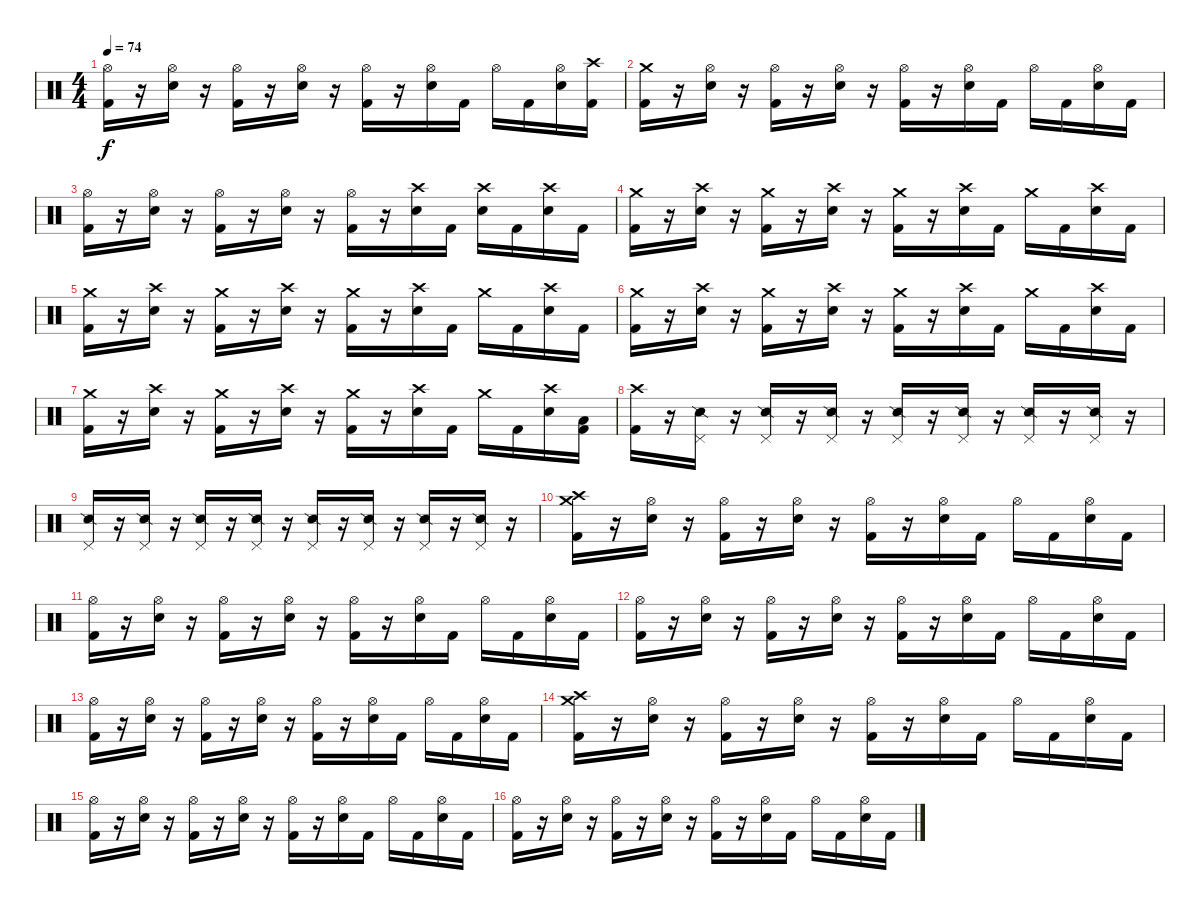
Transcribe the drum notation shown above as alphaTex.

\track "" {instrument percussion}
\staff {score}
\articulation defaults
\ts (4 4)
\tempo 74
\clef neutral
\ks c
("Hi-Hat (open)" "Kick (hit) 2").16{dy f} r.16 ("Hi-Hat (open)" "Electric Snare (hit)").16 r.16 ("Hi-Hat (open)" "Kick (hit) 2").16 r.16 ("Hi-Hat (open)" "Electric Snare (hit)").16 r.16 ("Hi-Hat (open)" "Kick (hit) 2").16 r.16 ("Hi-Hat (open)" "Electric Snare (hit)").16 "Kick (hit) 2".16 "Hi-Hat (open)".16 "Kick (hit) 2".16 ("Hi-Hat (open)" "Electric Snare (hit)").16 ("Crash high (hit)" "Kick (hit) 2").16 |
("Crash medium (hit)" "Kick (hit) 2").16 r.16 ("Hi-Hat (open)" "Electric Snare (hit)").16 r.16 ("Hi-Hat (open)" "Kick (hit) 2").16 r.16 ("Hi-Hat (open)" "Electric Snare (hit)").16 r.16 ("Hi-Hat (open)" "Kick (hit) 2").16 r.16 ("Hi-Hat (open)" "Electric Snare (hit)").16 "Kick (hit) 2".16 "Hi-Hat (open)".16 "Kick (hit) 2".16 ("Hi-Hat (open)" "Electric Snare (hit)").16 "Kick (hit) 2".16 |
("Hi-Hat (open)" "Kick (hit) 2").16 r.16 ("Hi-Hat (open)" "Electric Snare (hit)").16 r.16 ("Hi-Hat (open)" "Kick (hit) 2").16 r.16 ("Hi-Hat (open)" "Electric Snare (hit)").16 r.16 ("Hi-Hat (open)" "Kick (hit) 2").16 r.16 ("Crash high (hit)" "Electric Snare (hit)").16 "Kick (hit) 2".16 ("Crash high (hit)" "Electric Snare (hit)").16 "Kick (hit) 2".16 ("Crash high (hit)" "Electric Snare (hit)").16 "Kick (hit) 2".16 |
("Crash medium (hit)" "Kick (hit) 2").16 r.16 ("Crash high (hit)" "Electric Snare (hit)").16 r.16 ("Crash medium (hit)" "Kick (hit) 2").16 r.16 ("Crash high (hit)" "Electric Snare (hit)").16 r.16 ("Crash medium (hit)" "Kick (hit) 2").16 r.16 ("Crash high (hit)" "Electric Snare (hit)").16 "Kick (hit) 2".16 "Crash medium (hit)".16 "Kick (hit) 2".16 ("Crash high (hit)" "Electric Snare (hit)").16 "Kick (hit) 2".16 |
("Crash medium (hit)" "Kick (hit) 2").16 r.16 ("Crash high (hit)" "Electric Snare (hit)").16 r.16 ("Crash medium (hit)" "Kick (hit) 2").16 r.16 ("Crash high (hit)" "Electric Snare (hit)").16 r.16 ("Crash medium (hit)" "Kick (hit) 2").16 r.16 ("Crash high (hit)" "Electric Snare (hit)").16 "Kick (hit) 2".16 "Crash medium (hit)".16 "Kick (hit) 2".16 ("Crash high (hit)" "Electric Snare (hit)").16 "Kick (hit) 2".16 |
("Crash medium (hit)" "Kick (hit) 2").16 r.16 ("Crash high (hit)" "Electric Snare (hit)").16 r.16 ("Crash medium (hit)" "Kick (hit) 2").16 r.16 ("Crash high (hit)" "Electric Snare (hit)").16 r.16 ("Crash medium (hit)" "Kick (hit) 2").16 r.16 ("Crash high (hit)" "Electric Snare (hit)").16 "Kick (hit) 2".16 "Crash medium (hit)".16 "Kick (hit) 2".16 ("Crash high (hit)" "Electric Snare (hit)").16 "Kick (hit) 2".16 |
("Crash medium (hit)" "Kick (hit) 2").16 r.16 ("Crash high (hit)" "Electric Snare (hit)").16 r.16 ("Crash medium (hit)" "Kick (hit) 2").16 r.16 ("Crash high (hit)" "Electric Snare (hit)").16 r.16 ("Crash medium (hit)" "Kick (hit) 2").16 r.16 ("Crash high (hit)" "Electric Snare (hit)").16 "Kick (hit) 2".16 "Crash medium (hit)".16 "Kick (hit) 2".16 ("Crash high (hit)" "Electric Snare (hit)").16 ("Low Tom (hit)" "Kick (hit) 2").16 |
("Crash high (hit)" "Kick (hit) 2").16 r.16 ("Pedal Hi-Hat (hit)" "Snare (side stick) 2").16 r.16 ("Pedal Hi-Hat (hit)" "Snare (side stick) 2").16 r.16 ("Pedal Hi-Hat (hit)" "Snare (side stick) 2").16 r.16 ("Pedal Hi-Hat (hit)" "Snare (side stick) 2").16 r.16 ("Pedal Hi-Hat (hit)" "Snare (side stick) 2").16 r.16 ("Pedal Hi-Hat (hit)" "Snare (side stick) 2").16 r.16 ("Pedal Hi-Hat (hit)" "Snare (side stick) 2").16 r.16 |
("Pedal Hi-Hat (hit)" "Snare (side stick) 2").16 r.16 ("Pedal Hi-Hat (hit)" "Snare (side stick) 2").16 r.16 ("Pedal Hi-Hat (hit)" "Snare (side stick) 2").16 r.16 ("Pedal Hi-Hat (hit)" "Snare (side stick) 2").16 r.16 ("Pedal Hi-Hat (hit)" "Snare (side stick) 2").16 r.16 ("Pedal Hi-Hat (hit)" "Snare (side stick) 2").16 r.16 ("Pedal Hi-Hat (hit)" "Snare (side stick) 2").16 r.16 ("Pedal Hi-Hat (hit)" "Snare (side stick) 2").16 r.16 |
("Crash high (hit)" "Crash medium (hit)" "Kick (hit) 2").16 r.16 ("Hi-Hat (open)" "Electric Snare (hit)").16 r.16 ("Hi-Hat (open)" "Kick (hit) 2").16 r.16 ("Hi-Hat (open)" "Electric Snare (hit)").16 r.16 ("Hi-Hat (open)" "Kick (hit) 2").16 r.16 ("Hi-Hat (open)" "Electric Snare (hit)").16 "Kick (hit) 2".16 "Hi-Hat (open)".16 "Kick (hit) 2".16 ("Hi-Hat (open)" "Electric Snare (hit)").16 "Kick (hit) 2".16 |
("Hi-Hat (open)" "Kick (hit) 2").16 r.16 ("Hi-Hat (open)" "Electric Snare (hit)").16 r.16 ("Hi-Hat (open)" "Kick (hit) 2").16 r.16 ("Hi-Hat (open)" "Electric Snare (hit)").16 r.16 ("Hi-Hat (open)" "Kick (hit) 2").16 r.16 ("Hi-Hat (open)" "Electric Snare (hit)").16 "Kick (hit) 2".16 "Hi-Hat (open)".16 "Kick (hit) 2".16 ("Hi-Hat (open)" "Electric Snare (hit)").16 "Kick (hit) 2".16 |
("Hi-Hat (open)" "Kick (hit) 2").16 r.16 ("Hi-Hat (open)" "Electric Snare (hit)").16 r.16 ("Hi-Hat (open)" "Kick (hit) 2").16 r.16 ("Hi-Hat (open)" "Electric Snare (hit)").16 r.16 ("Hi-Hat (open)" "Kick (hit) 2").16 r.16 ("Hi-Hat (open)" "Electric Snare (hit)").16 "Kick (hit) 2".16 "Hi-Hat (open)".16 "Kick (hit) 2".16 ("Hi-Hat (open)" "Electric Snare (hit)").16 "Kick (hit) 2".16 |
("Hi-Hat (open)" "Kick (hit) 2").16 r.16 ("Hi-Hat (open)" "Electric Snare (hit)").16 r.16 ("Hi-Hat (open)" "Kick (hit) 2").16 r.16 ("Hi-Hat (open)" "Electric Snare (hit)").16 r.16 ("Hi-Hat (open)" "Kick (hit) 2").16 r.16 ("Hi-Hat (open)" "Electric Snare (hit)").16 "Kick (hit) 2".16 "Hi-Hat (open)".16 "Kick (hit) 2".16 ("Hi-Hat (open)" "Electric Snare (hit)").16 "Kick (hit) 2".16 |
("Crash high (hit)" "Crash medium (hit)" "Kick (hit) 2").16 r.16 ("Hi-Hat (open)" "Electric Snare (hit)").16 r.16 ("Hi-Hat (open)" "Kick (hit) 2").16 r.16 ("Hi-Hat (open)" "Electric Snare (hit)").16 r.16 ("Hi-Hat (open)" "Kick (hit) 2").16 r.16 ("Hi-Hat (open)" "Electric Snare (hit)").16 "Kick (hit) 2".16 "Hi-Hat (open)".16 "Kick (hit) 2".16 ("Hi-Hat (open)" "Electric Snare (hit)").16 "Kick (hit) 2".16 |
("Hi-Hat (open)" "Kick (hit) 2").16 r.16 ("Hi-Hat (open)" "Electric Snare (hit)").16 r.16 ("Hi-Hat (open)" "Kick (hit) 2").16 r.16 ("Hi-Hat (open)" "Electric Snare (hit)").16 r.16 ("Hi-Hat (open)" "Kick (hit) 2").16 r.16 ("Hi-Hat (open)" "Electric Snare (hit)").16 "Kick (hit) 2".16 "Hi-Hat (open)".16 "Kick (hit) 2".16 ("Hi-Hat (open)" "Electric Snare (hit)").16 "Kick (hit) 2".16 |
("Hi-Hat (open)" "Kick (hit) 2").16 r.16 ("Hi-Hat (open)" "Electric Snare (hit)").16 r.16 ("Hi-Hat (open)" "Kick (hit) 2").16 r.16 ("Hi-Hat (open)" "Electric Snare (hit)").16 r.16 ("Hi-Hat (open)" "Kick (hit) 2").16 r.16 ("Hi-Hat (open)" "Electric Snare (hit)").16 "Kick (hit) 2".16 "Hi-Hat (open)".16 "Kick (hit) 2".16 ("Hi-Hat (open)" "Electric Snare (hit)").16 "Kick (hit) 2".16
